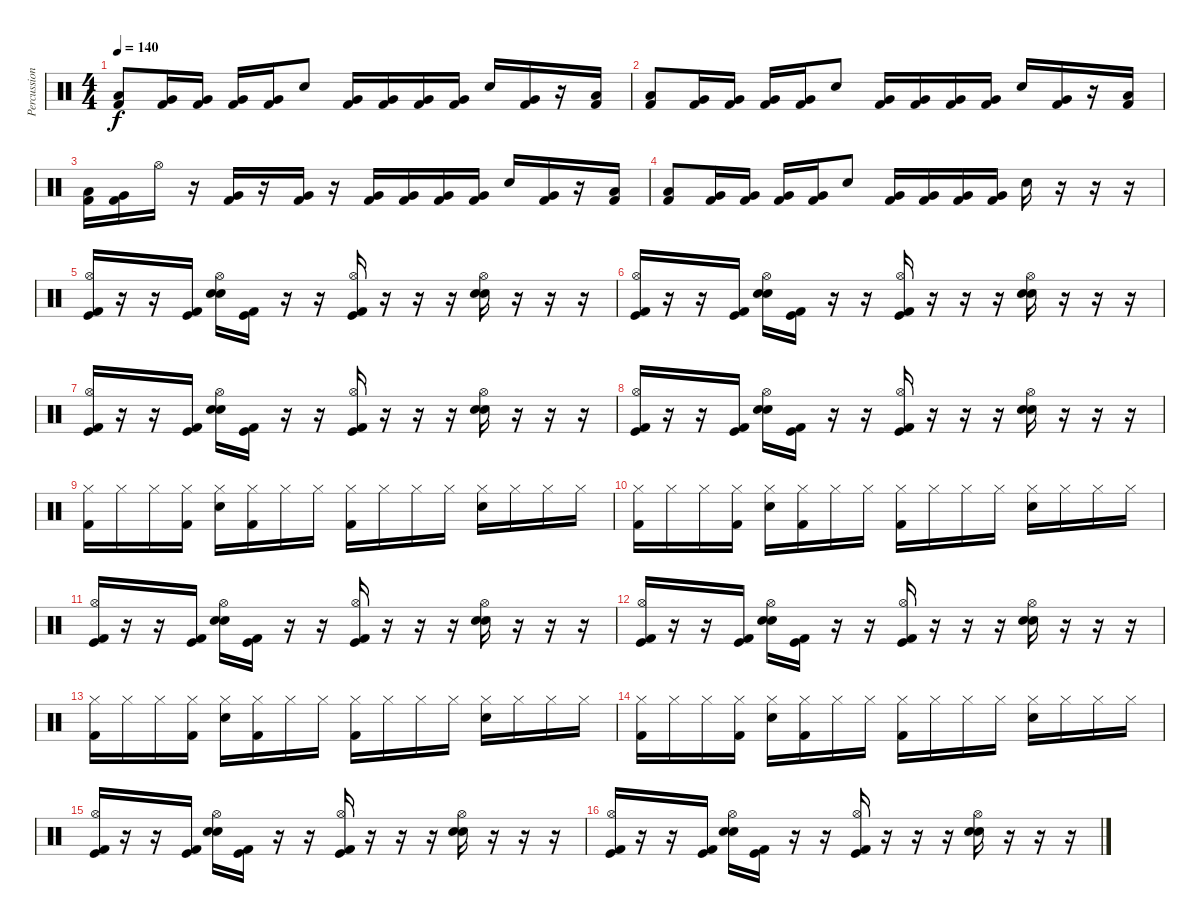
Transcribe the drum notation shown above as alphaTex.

\track ("Percussion" "Percussion") {instrument percussion}
\staff {score}
\articulation defaults
\ts (4 4)
\tempo 140
\clef neutral
\ks c
("Low Tom (hit)" "Kick (hit) 2").8{dy f} ("Very Low Tom (hit)" "Kick (hit) 2").16 ("Very Low Tom (hit)" "Kick (hit) 2").16 ("Very Low Tom (hit)" "Kick (hit) 2").16 ("Very Low Tom (hit)" "Kick (hit) 2").16 "Electric Snare (hit)".8 ("Very Low Tom (hit)" "Kick (hit) 2").16 ("Very Low Tom (hit)" "Kick (hit) 2").16 ("Very Low Tom (hit)" "Kick (hit) 2").16 ("Very Low Tom (hit)" "Kick (hit) 2").16 "Electric Snare (hit)".16 ("Very Low Tom (hit)" "Kick (hit) 2").16 r.16 ("Low Tom (hit)" "Kick (hit) 2").16 |
("Low Tom (hit)" "Kick (hit) 2").8 ("Very Low Tom (hit)" "Kick (hit) 2").16 ("Very Low Tom (hit)" "Kick (hit) 2").16 ("Very Low Tom (hit)" "Kick (hit) 2").16 ("Very Low Tom (hit)" "Kick (hit) 2").16 "Electric Snare (hit)".8 ("Very Low Tom (hit)" "Kick (hit) 2").16 ("Very Low Tom (hit)" "Kick (hit) 2").16 ("Very Low Tom (hit)" "Kick (hit) 2").16 ("Very Low Tom (hit)" "Kick (hit) 2").16 "Electric Snare (hit)".16 ("Very Low Tom (hit)" "Kick (hit) 2").16 r.16 ("Low Tom (hit)" "Kick (hit) 2").16 |
("Low Tom (hit)" "Kick (hit) 2").16 ("Very Low Tom (hit)" "Kick (hit) 2").16 "Hi-Hat (open)".16 r.16 ("Very Low Tom (hit)" "Kick (hit) 2").16 r.16 ("Very Low Tom (hit)" "Kick (hit) 2").16 r.16 ("Very Low Tom (hit)" "Kick (hit) 2").16 ("Very Low Tom (hit)" "Kick (hit) 2").16 ("Very Low Tom (hit)" "Kick (hit) 2").16 ("Very Low Tom (hit)" "Kick (hit) 2").16 "Electric Snare (hit)".16 ("Very Low Tom (hit)" "Kick (hit) 2").16 r.16 ("Low Tom (hit)" "Kick (hit) 2").16 |
("Low Tom (hit)" "Kick (hit) 2").8 ("Very Low Tom (hit)" "Kick (hit) 2").16 ("Very Low Tom (hit)" "Kick (hit) 2").16 ("Very Low Tom (hit)" "Kick (hit) 2").16 ("Very Low Tom (hit)" "Kick (hit) 2").16 "Electric Snare (hit)".8 ("Very Low Tom (hit)" "Kick (hit) 2").16 ("Very Low Tom (hit)" "Kick (hit) 2").16 ("Very Low Tom (hit)" "Kick (hit) 2").16 ("Very Low Tom (hit)" "Kick (hit) 2").16 "Electric Snare (hit)".16 r.16 r.16 r.16 |
("Hi-Hat (open)" "Kick (hit)" "Kick (hit) 2").16 r.16 r.16 ("Kick (hit)" "Kick (hit) 2").16 ("Hi-Hat (open)" "Electric Snare (hit)" "Electric Snare (hit)").16 ("Kick (hit)" "Kick (hit) 2").16 r.16 r.16 ("Hi-Hat (open)" "Kick (hit)" "Kick (hit) 2").16 r.16 r.16 r.16 ("Hi-Hat (open)" "Electric Snare (hit)" "Electric Snare (hit)").16 r.16 r.16 r.16 |
("Hi-Hat (open)" "Kick (hit)" "Kick (hit) 2").16 r.16 r.16 ("Kick (hit)" "Kick (hit) 2").16 ("Hi-Hat (open)" "Electric Snare (hit)" "Electric Snare (hit)").16 ("Kick (hit)" "Kick (hit) 2").16 r.16 r.16 ("Hi-Hat (open)" "Kick (hit)" "Kick (hit) 2").16 r.16 r.16 r.16 ("Hi-Hat (open)" "Electric Snare (hit)" "Electric Snare (hit)").16 r.16 r.16 r.16 |
("Hi-Hat (open)" "Kick (hit)" "Kick (hit) 2").16 r.16 r.16 ("Kick (hit)" "Kick (hit) 2").16 ("Hi-Hat (open)" "Electric Snare (hit)" "Electric Snare (hit)").16 ("Kick (hit)" "Kick (hit) 2").16 r.16 r.16 ("Hi-Hat (open)" "Kick (hit)" "Kick (hit) 2").16 r.16 r.16 r.16 ("Hi-Hat (open)" "Electric Snare (hit)" "Electric Snare (hit)").16 r.16 r.16 r.16 |
("Hi-Hat (open)" "Kick (hit)" "Kick (hit) 2").16 r.16 r.16 ("Kick (hit)" "Kick (hit) 2").16 ("Hi-Hat (open)" "Electric Snare (hit)" "Electric Snare (hit)").16 ("Kick (hit)" "Kick (hit) 2").16 r.16 r.16 ("Hi-Hat (open)" "Kick (hit)" "Kick (hit) 2").16 r.16 r.16 r.16 ("Hi-Hat (open)" "Electric Snare (hit)" "Electric Snare (hit)").16 r.16 r.16 r.16 |
("Hi-Hat (closed)" "Kick (hit) 2").16 "Hi-Hat (closed)".16 "Hi-Hat (closed)".16 ("Hi-Hat (closed)" "Kick (hit) 2").16 ("Hi-Hat (closed)" "Electric Snare (hit)").16 ("Hi-Hat (closed)" "Kick (hit) 2").16 "Hi-Hat (closed)".16 "Hi-Hat (closed)".16 ("Hi-Hat (closed)" "Kick (hit) 2").16 "Hi-Hat (closed)".16 "Hi-Hat (closed)".16 "Hi-Hat (closed)".16 ("Hi-Hat (closed)" "Electric Snare (hit)").16 "Hi-Hat (closed)".16 "Hi-Hat (closed)".16 "Hi-Hat (closed)".16 |
("Hi-Hat (closed)" "Kick (hit) 2").16 "Hi-Hat (closed)".16 "Hi-Hat (closed)".16 ("Hi-Hat (closed)" "Kick (hit) 2").16 ("Hi-Hat (closed)" "Electric Snare (hit)").16 ("Hi-Hat (closed)" "Kick (hit) 2").16 "Hi-Hat (closed)".16 "Hi-Hat (closed)".16 ("Hi-Hat (closed)" "Kick (hit) 2").16 "Hi-Hat (closed)".16 "Hi-Hat (closed)".16 "Hi-Hat (closed)".16 ("Hi-Hat (closed)" "Electric Snare (hit)").16 "Hi-Hat (closed)".16 "Hi-Hat (closed)".16 "Hi-Hat (closed)".16 |
("Hi-Hat (open)" "Kick (hit)" "Kick (hit) 2").16 r.16 r.16 ("Kick (hit)" "Kick (hit) 2").16 ("Hi-Hat (open)" "Electric Snare (hit)" "Electric Snare (hit)").16 ("Kick (hit)" "Kick (hit) 2").16 r.16 r.16 ("Hi-Hat (open)" "Kick (hit)" "Kick (hit) 2").16 r.16 r.16 r.16 ("Hi-Hat (open)" "Electric Snare (hit)" "Electric Snare (hit)").16 r.16 r.16 r.16 |
("Hi-Hat (open)" "Kick (hit)" "Kick (hit) 2").16 r.16 r.16 ("Kick (hit)" "Kick (hit) 2").16 ("Hi-Hat (open)" "Electric Snare (hit)" "Electric Snare (hit)").16 ("Kick (hit)" "Kick (hit) 2").16 r.16 r.16 ("Hi-Hat (open)" "Kick (hit)" "Kick (hit) 2").16 r.16 r.16 r.16 ("Hi-Hat (open)" "Electric Snare (hit)" "Electric Snare (hit)").16 r.16 r.16 r.16 |
("Hi-Hat (closed)" "Kick (hit) 2").16 "Hi-Hat (closed)".16 "Hi-Hat (closed)".16 ("Hi-Hat (closed)" "Kick (hit) 2").16 ("Hi-Hat (closed)" "Electric Snare (hit)").16 ("Hi-Hat (closed)" "Kick (hit) 2").16 "Hi-Hat (closed)".16 "Hi-Hat (closed)".16 ("Hi-Hat (closed)" "Kick (hit) 2").16 "Hi-Hat (closed)".16 "Hi-Hat (closed)".16 "Hi-Hat (closed)".16 ("Hi-Hat (closed)" "Electric Snare (hit)").16 "Hi-Hat (closed)".16 "Hi-Hat (closed)".16 "Hi-Hat (closed)".16 |
("Hi-Hat (closed)" "Kick (hit) 2").16 "Hi-Hat (closed)".16 "Hi-Hat (closed)".16 ("Hi-Hat (closed)" "Kick (hit) 2").16 ("Hi-Hat (closed)" "Electric Snare (hit)").16 ("Hi-Hat (closed)" "Kick (hit) 2").16 "Hi-Hat (closed)".16 "Hi-Hat (closed)".16 ("Hi-Hat (closed)" "Kick (hit) 2").16 "Hi-Hat (closed)".16 "Hi-Hat (closed)".16 "Hi-Hat (closed)".16 ("Hi-Hat (closed)" "Electric Snare (hit)").16 "Hi-Hat (closed)".16 "Hi-Hat (closed)".16 "Hi-Hat (closed)".16 |
("Hi-Hat (open)" "Kick (hit)" "Kick (hit) 2").16 r.16 r.16 ("Kick (hit)" "Kick (hit) 2").16 ("Hi-Hat (open)" "Electric Snare (hit)" "Electric Snare (hit)").16 ("Kick (hit)" "Kick (hit) 2").16 r.16 r.16 ("Hi-Hat (open)" "Kick (hit)" "Kick (hit) 2").16 r.16 r.16 r.16 ("Hi-Hat (open)" "Electric Snare (hit)" "Electric Snare (hit)").16 r.16 r.16 r.16 |
("Hi-Hat (open)" "Kick (hit)" "Kick (hit) 2").16 r.16 r.16 ("Kick (hit)" "Kick (hit) 2").16 ("Hi-Hat (open)" "Electric Snare (hit)" "Electric Snare (hit)").16 ("Kick (hit)" "Kick (hit) 2").16 r.16 r.16 ("Hi-Hat (open)" "Kick (hit)" "Kick (hit) 2").16 r.16 r.16 r.16 ("Hi-Hat (open)" "Electric Snare (hit)" "Electric Snare (hit)").16 r.16 r.16 r.16
